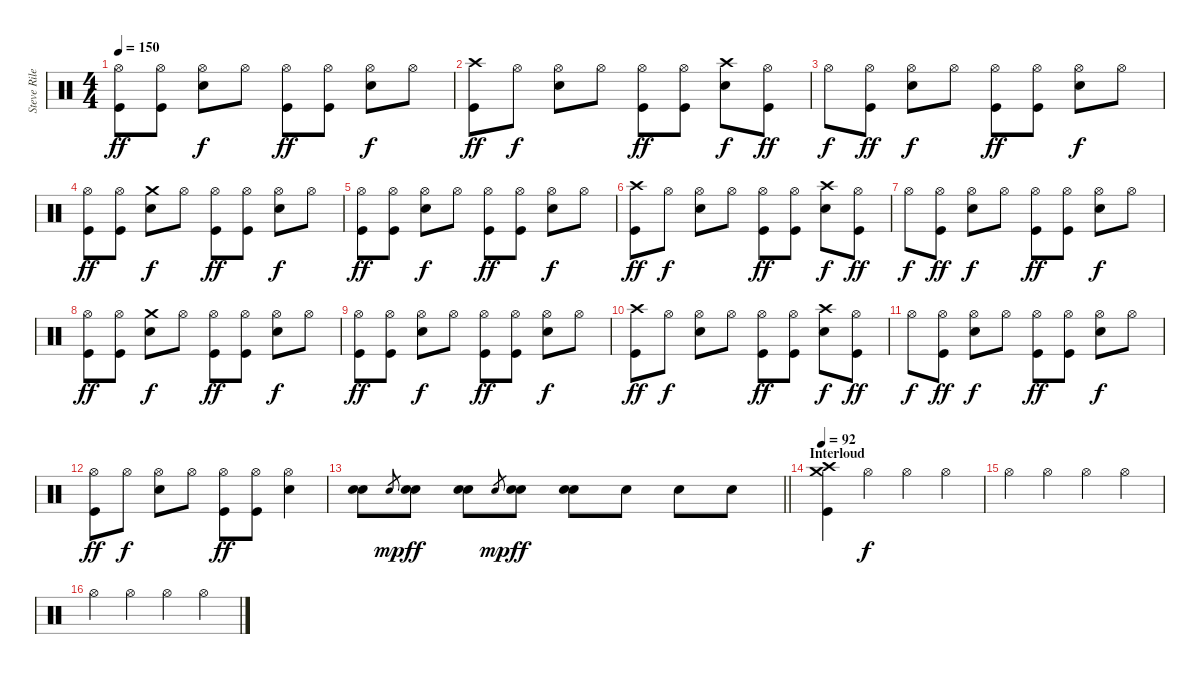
\track ("Steve Riley" "Steve Rile") {instrument percussion}
\staff {score}
\articulation defaults
\ts (4 4)
\tempo 150
\clef neutral
\ks c
("Hi-Hat (open)" "Kick (hit)").8{dy ff} ("Hi-Hat (open)" "Kick (hit)").8 ("Hi-Hat (open)" "Snare (hit) 2").8{dy f} "Hi-Hat (open)".8 ("Hi-Hat (open)" "Kick (hit)").8{dy ff} ("Hi-Hat (open)" "Kick (hit)").8 ("Hi-Hat (open)" "Snare (hit) 2").8{dy f} "Hi-Hat (open)".8 |
("Crash high (hit)" "Kick (hit)").8{dy ff} "Hi-Hat (open)".8{dy f} ("Hi-Hat (open)" "Snare (hit) 2").8 "Hi-Hat (open)".8 ("Hi-Hat (open)" "Kick (hit)").8{dy ff} ("Hi-Hat (open)" "Kick (hit)").8 ("Crash high (hit)" "Snare (hit) 2").8{dy f} ("Hi-Hat (open)" "Kick (hit)").8{dy ff} |
"Hi-Hat (open)".8{dy f} ("Hi-Hat (open)" "Kick (hit)").8{dy ff} ("Hi-Hat (open)" "Snare (hit) 2").8{dy f} "Hi-Hat (open)".8 ("Hi-Hat (open)" "Kick (hit)").8{dy ff} ("Hi-Hat (open)" "Kick (hit)").8 ("Hi-Hat (open)" "Snare (hit) 2").8{dy f} "Hi-Hat (open)".8 |
("Hi-Hat (open)" "Kick (hit)").8{dy ff} ("Hi-Hat (open)" "Kick (hit)").8 ("Crash medium (hit)" "Snare (hit) 2").8{dy f} "Hi-Hat (open)".8 ("Hi-Hat (open)" "Kick (hit)").8{dy ff} ("Hi-Hat (open)" "Kick (hit)").8 ("Hi-Hat (open)" "Snare (hit) 2").8{dy f} "Hi-Hat (open)".8 |
("Hi-Hat (open)" "Kick (hit)").8{dy ff} ("Hi-Hat (open)" "Kick (hit)").8 ("Hi-Hat (open)" "Snare (hit) 2").8{dy f} "Hi-Hat (open)".8 ("Hi-Hat (open)" "Kick (hit)").8{dy ff} ("Hi-Hat (open)" "Kick (hit)").8 ("Hi-Hat (open)" "Snare (hit) 2").8{dy f} "Hi-Hat (open)".8 |
("Crash high (hit)" "Kick (hit)").8{dy ff} "Hi-Hat (open)".8{dy f} ("Hi-Hat (open)" "Snare (hit) 2").8 "Hi-Hat (open)".8 ("Hi-Hat (open)" "Kick (hit)").8{dy ff} ("Hi-Hat (open)" "Kick (hit)").8 ("Crash high (hit)" "Snare (hit) 2").8{dy f} ("Hi-Hat (open)" "Kick (hit)").8{dy ff} |
"Hi-Hat (open)".8{dy f} ("Hi-Hat (open)" "Kick (hit)").8{dy ff} ("Hi-Hat (open)" "Snare (hit) 2").8{dy f} "Hi-Hat (open)".8 ("Hi-Hat (open)" "Kick (hit)").8{dy ff} ("Hi-Hat (open)" "Kick (hit)").8 ("Hi-Hat (open)" "Snare (hit) 2").8{dy f} "Hi-Hat (open)".8 |
("Hi-Hat (open)" "Kick (hit)").8{dy ff} ("Hi-Hat (open)" "Kick (hit)").8 ("Crash medium (hit)" "Snare (hit) 2").8{dy f} "Hi-Hat (open)".8 ("Hi-Hat (open)" "Kick (hit)").8{dy ff} ("Hi-Hat (open)" "Kick (hit)").8 ("Hi-Hat (open)" "Snare (hit) 2").8{dy f} "Hi-Hat (open)".8 |
("Hi-Hat (open)" "Kick (hit)").8{dy ff} ("Hi-Hat (open)" "Kick (hit)").8 ("Hi-Hat (open)" "Snare (hit) 2").8{dy f} "Hi-Hat (open)".8 ("Hi-Hat (open)" "Kick (hit)").8{dy ff} ("Hi-Hat (open)" "Kick (hit)").8 ("Hi-Hat (open)" "Snare (hit) 2").8{dy f} "Hi-Hat (open)".8 |
("Crash high (hit)" "Kick (hit)").8{dy ff} "Hi-Hat (open)".8{dy f} ("Hi-Hat (open)" "Snare (hit) 2").8 "Hi-Hat (open)".8 ("Hi-Hat (open)" "Kick (hit)").8{dy ff} ("Hi-Hat (open)" "Kick (hit)").8 ("Crash high (hit)" "Snare (hit) 2").8{dy f} ("Hi-Hat (open)" "Kick (hit)").8{dy ff} |
"Hi-Hat (open)".8{dy f} ("Hi-Hat (open)" "Kick (hit)").8{dy ff} ("Hi-Hat (open)" "Snare (hit) 2").8{dy f} "Hi-Hat (open)".8 ("Hi-Hat (open)" "Kick (hit)").8{dy ff} ("Hi-Hat (open)" "Kick (hit)").8 ("Hi-Hat (open)" "Snare (hit) 2").8{dy f} "Hi-Hat (open)".8 |
("Hi-Hat (open)" "Kick (hit)").8{dy ff} "Hi-Hat (open)".8{dy f} ("Hi-Hat (open)" "Snare (hit) 2").8 "Hi-Hat (open)".8 ("Hi-Hat (open)" "Kick (hit)").8{dy ff} ("Hi-Hat (open)" "Kick (hit)").8 ("Hi-Hat (open)" "Snare (hit) 2").4 |
\barLineRight lightlight
("Snare (hit) 2" "Snare (hit) 2").8 "Snare (hit) 2".8{gr dy mp} ("Snare (hit) 2" "Snare (hit) 2").8{dy ff} ("Snare (hit) 2" "Snare (hit) 2").8 "Snare (hit) 2".8{gr dy mp} ("Snare (hit) 2" "Snare (hit) 2").8{dy ff} ("Snare (hit) 2" "Snare (hit) 2").8 "Snare (hit) 2".8 "Snare (hit) 2".8 "Snare (hit) 2".8 |
\section ("" "Interloud")
\tempo 92
("Crash medium (hit)" "Crash high (hit)" "Kick (hit)").4 "Hi-Hat (open)".4{dy f} "Hi-Hat (open)".4 "Hi-Hat (open)".4 |
"Hi-Hat (open)".4 "Hi-Hat (open)".4 "Hi-Hat (open)".4 "Hi-Hat (open)".4 |
"Hi-Hat (open)".4 "Hi-Hat (open)".4 "Hi-Hat (open)".4 "Hi-Hat (open)".4
